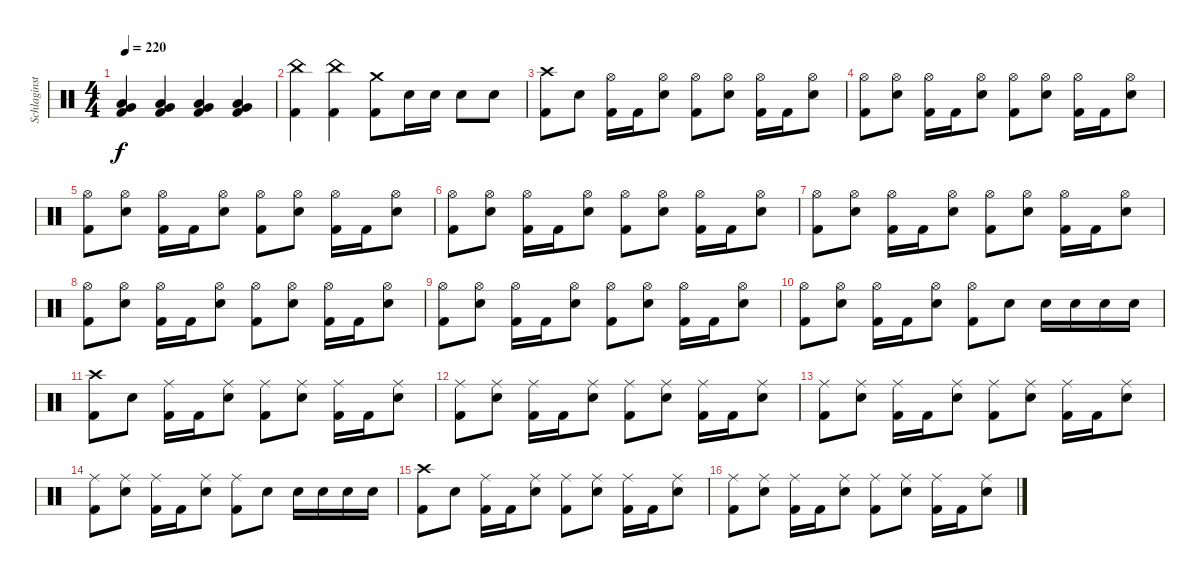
\track ("Schlaginstrumente - Auswahl" "Schlaginst") {instrument percussion}
\staff {score}
\articulation defaults
\ts (4 4)
\tempo 220
\clef neutral
\ks c
("Very Low Tom (hit)" "Low Floor Tom (hit)" "Kick (hit) 2").4{dy f} ("Very Low Tom (hit)" "Low Floor Tom (hit)" "Kick (hit) 2").4 ("Very Low Tom (hit)" "Low Floor Tom (hit)" "Kick (hit) 2").4 ("Very Low Tom (hit)" "Low Floor Tom (hit)" "Kick (hit) 2").4 |
("China (hit)" "Kick (hit) 2").4 ("China (hit)" "Kick (hit) 2").4 ("Crash medium (hit)" "Kick (hit) 2").8 "Snare (hit) 2".16 "Snare (hit) 2".16 "Snare (hit) 2".8 "Snare (hit) 2".8 |
("Crash high (hit)" "Kick (hit) 2").8 "Snare (hit) 2".8 ("Hi-Hat (open)" "Kick (hit) 2").16 "Kick (hit) 2".16 ("Hi-Hat (open)" "Snare (hit) 2").8 ("Hi-Hat (open)" "Kick (hit) 2").8 ("Hi-Hat (open)" "Snare (hit) 2").8 ("Hi-Hat (open)" "Kick (hit) 2").16 "Kick (hit) 2".16 ("Hi-Hat (open)" "Snare (hit) 2").8 |
("Hi-Hat (open)" "Kick (hit) 2").8 ("Hi-Hat (open)" "Snare (hit) 2").8 ("Hi-Hat (open)" "Kick (hit) 2").16 "Kick (hit) 2".16 ("Hi-Hat (open)" "Snare (hit) 2").8 ("Hi-Hat (open)" "Kick (hit) 2").8 ("Hi-Hat (open)" "Snare (hit) 2").8 ("Hi-Hat (open)" "Kick (hit) 2").16 "Kick (hit) 2".16 ("Hi-Hat (open)" "Snare (hit) 2").8 |
("Hi-Hat (open)" "Kick (hit) 2").8 ("Hi-Hat (open)" "Snare (hit) 2").8 ("Hi-Hat (open)" "Kick (hit) 2").16 "Kick (hit) 2".16 ("Hi-Hat (open)" "Snare (hit) 2").8 ("Hi-Hat (open)" "Kick (hit) 2").8 ("Hi-Hat (open)" "Snare (hit) 2").8 ("Hi-Hat (open)" "Kick (hit) 2").16 "Kick (hit) 2".16 ("Hi-Hat (open)" "Snare (hit) 2").8 |
("Hi-Hat (open)" "Kick (hit) 2").8 ("Hi-Hat (open)" "Snare (hit) 2").8 ("Hi-Hat (open)" "Kick (hit) 2").16 "Kick (hit) 2".16 ("Hi-Hat (open)" "Snare (hit) 2").8 ("Hi-Hat (open)" "Kick (hit) 2").8 ("Hi-Hat (open)" "Snare (hit) 2").8 ("Hi-Hat (open)" "Kick (hit) 2").16 "Kick (hit) 2".16 ("Hi-Hat (open)" "Snare (hit) 2").8 |
("Hi-Hat (open)" "Kick (hit) 2").8 ("Hi-Hat (open)" "Snare (hit) 2").8 ("Hi-Hat (open)" "Kick (hit) 2").16 "Kick (hit) 2".16 ("Hi-Hat (open)" "Snare (hit) 2").8 ("Hi-Hat (open)" "Kick (hit) 2").8 ("Hi-Hat (open)" "Snare (hit) 2").8 ("Hi-Hat (open)" "Kick (hit) 2").16 "Kick (hit) 2".16 ("Hi-Hat (open)" "Snare (hit) 2").8 |
("Hi-Hat (open)" "Kick (hit) 2").8 ("Hi-Hat (open)" "Snare (hit) 2").8 ("Hi-Hat (open)" "Kick (hit) 2").16 "Kick (hit) 2".16 ("Hi-Hat (open)" "Snare (hit) 2").8 ("Hi-Hat (open)" "Kick (hit) 2").8 ("Hi-Hat (open)" "Snare (hit) 2").8 ("Hi-Hat (open)" "Kick (hit) 2").16 "Kick (hit) 2".16 ("Hi-Hat (open)" "Snare (hit) 2").8 |
("Hi-Hat (open)" "Kick (hit) 2").8 ("Hi-Hat (open)" "Snare (hit) 2").8 ("Hi-Hat (open)" "Kick (hit) 2").16 "Kick (hit) 2".16 ("Hi-Hat (open)" "Snare (hit) 2").8 ("Hi-Hat (open)" "Kick (hit) 2").8 ("Hi-Hat (open)" "Snare (hit) 2").8 ("Hi-Hat (open)" "Kick (hit) 2").16 "Kick (hit) 2".16 ("Hi-Hat (open)" "Snare (hit) 2").8 |
("Hi-Hat (open)" "Kick (hit) 2").8 ("Hi-Hat (open)" "Snare (hit) 2").8 ("Hi-Hat (open)" "Kick (hit) 2").16 "Kick (hit) 2".16 ("Hi-Hat (open)" "Snare (hit) 2").8 ("Hi-Hat (open)" "Kick (hit) 2").8 "Snare (hit) 2".8 "Snare (hit) 2".16 "Snare (hit) 2".16 "Snare (hit) 2".16 "Snare (hit) 2".16 |
("Crash high (hit)" "Kick (hit) 2").8 "Snare (hit) 2".8 ("Ride (middle)" "Kick (hit) 2").16 "Kick (hit) 2".16 ("Ride (middle)" "Snare (hit) 2").8 ("Ride (middle)" "Kick (hit) 2").8 ("Ride (middle)" "Snare (hit) 2").8 ("Ride (middle)" "Kick (hit) 2").16 "Kick (hit) 2".16 ("Ride (middle)" "Snare (hit) 2").8 |
("Ride (middle)" "Kick (hit) 2").8 ("Ride (middle)" "Snare (hit) 2").8 ("Ride (middle)" "Kick (hit) 2").16 "Kick (hit) 2".16 ("Ride (middle)" "Snare (hit) 2").8 ("Ride (middle)" "Kick (hit) 2").8 ("Ride (middle)" "Snare (hit) 2").8 ("Ride (middle)" "Kick (hit) 2").16 "Kick (hit) 2".16 ("Ride (middle)" "Snare (hit) 2").8 |
("Ride (middle)" "Kick (hit) 2").8 ("Ride (middle)" "Snare (hit) 2").8 ("Ride (middle)" "Kick (hit) 2").16 "Kick (hit) 2".16 ("Ride (middle)" "Snare (hit) 2").8 ("Ride (middle)" "Kick (hit) 2").8 ("Ride (middle)" "Snare (hit) 2").8 ("Ride (middle)" "Kick (hit) 2").16 "Kick (hit) 2".16 ("Ride (middle)" "Snare (hit) 2").8 |
("Ride (middle)" "Kick (hit) 2").8 ("Ride (middle)" "Snare (hit) 2").8 ("Ride (middle)" "Kick (hit) 2").16 "Kick (hit) 2".16 ("Ride (middle)" "Snare (hit) 2").8 ("Ride (middle)" "Kick (hit) 2").8 "Snare (hit) 2".8 "Snare (hit) 2".16 "Snare (hit) 2".16 "Snare (hit) 2".16 "Snare (hit) 2".16 |
("Crash high (hit)" "Kick (hit) 2").8 "Snare (hit) 2".8 ("Ride (middle)" "Kick (hit) 2").16 "Kick (hit) 2".16 ("Ride (middle)" "Snare (hit) 2").8 ("Ride (middle)" "Kick (hit) 2").8 ("Ride (middle)" "Snare (hit) 2").8 ("Ride (middle)" "Kick (hit) 2").16 "Kick (hit) 2".16 ("Ride (middle)" "Snare (hit) 2").8 |
("Ride (middle)" "Kick (hit) 2").8 ("Ride (middle)" "Snare (hit) 2").8 ("Ride (middle)" "Kick (hit) 2").16 "Kick (hit) 2".16 ("Ride (middle)" "Snare (hit) 2").8 ("Ride (middle)" "Kick (hit) 2").8 ("Ride (middle)" "Snare (hit) 2").8 ("Ride (middle)" "Kick (hit) 2").16 "Kick (hit) 2".16 ("Ride (middle)" "Snare (hit) 2").8
